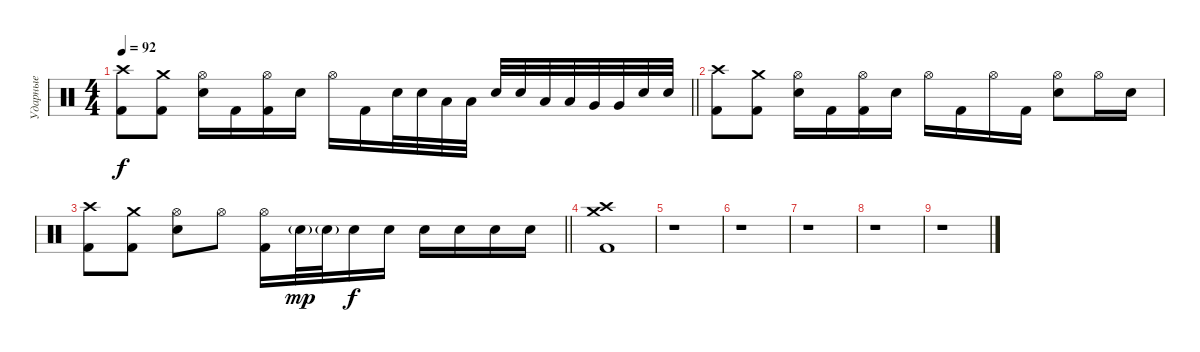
\track ("Ударные" "Ударные") {instrument percussion}
\staff {score}
\articulation defaults
\ts (4 4)
\tempo 92
\clef neutral
\barLineRight lightlight
\ks c
("Crash high (hit)" "Kick (hit) 2").8{dy f} ("Crash medium (hit)" "Kick (hit) 2").8 ("Hi-Hat (open)" "Electric Snare (hit)").16 "Kick (hit) 2".16 ("Hi-Hat (open)" "Kick (hit) 2").16 "Electric Snare (hit)".16 "Hi-Hat (open)".16 "Kick (hit) 2".16 "Electric Snare (hit)".32 "Electric Snare (hit)".32 "Low Tom (hit)".32 "Low Tom (hit)".32 "Electric Snare (hit)".32 "Electric Snare (hit)".32 "Low Tom (hit)".32 "Low Tom (hit)".32 "Very Low Tom (hit)".32 "Very Low Tom (hit)".32 "Electric Snare (hit)".32 "Electric Snare (hit)".32 |
("Crash high (hit)" "Kick (hit) 2").8 ("Crash medium (hit)" "Kick (hit) 2").8 ("Hi-Hat (open)" "Electric Snare (hit)").16 "Kick (hit) 2".16 ("Hi-Hat (open)" "Kick (hit) 2").16 "Electric Snare (hit)".16 "Hi-Hat (open)".16 "Kick (hit) 2".16 "Hi-Hat (open)".16 "Kick (hit) 2".16 ("Hi-Hat (open)" "Electric Snare (hit)").8 "Hi-Hat (open)".16 "Electric Snare (hit)".16 |
\barLineRight lightlight
("Crash high (hit)" "Kick (hit) 2").8 ("Crash medium (hit)" "Kick (hit) 2").8 ("Hi-Hat (open)" "Electric Snare (hit)").8 "Hi-Hat (open)".8 ("Hi-Hat (open)" "Kick (hit) 2").16 "Electric Snare (hit)"{g}.32{dy mp} "Electric Snare (hit)"{g}.32 "Electric Snare (hit)".16{dy f} "Electric Snare (hit)".16 "Electric Snare (hit)".16 "Electric Snare (hit)".16 "Electric Snare (hit)".16 "Electric Snare (hit)".16 |
("Crash high (hit)" "Crash medium (hit)" "Kick (hit) 2").1 |
r.1 |
r.1 |
r.1 |
r.1 |
r.1
